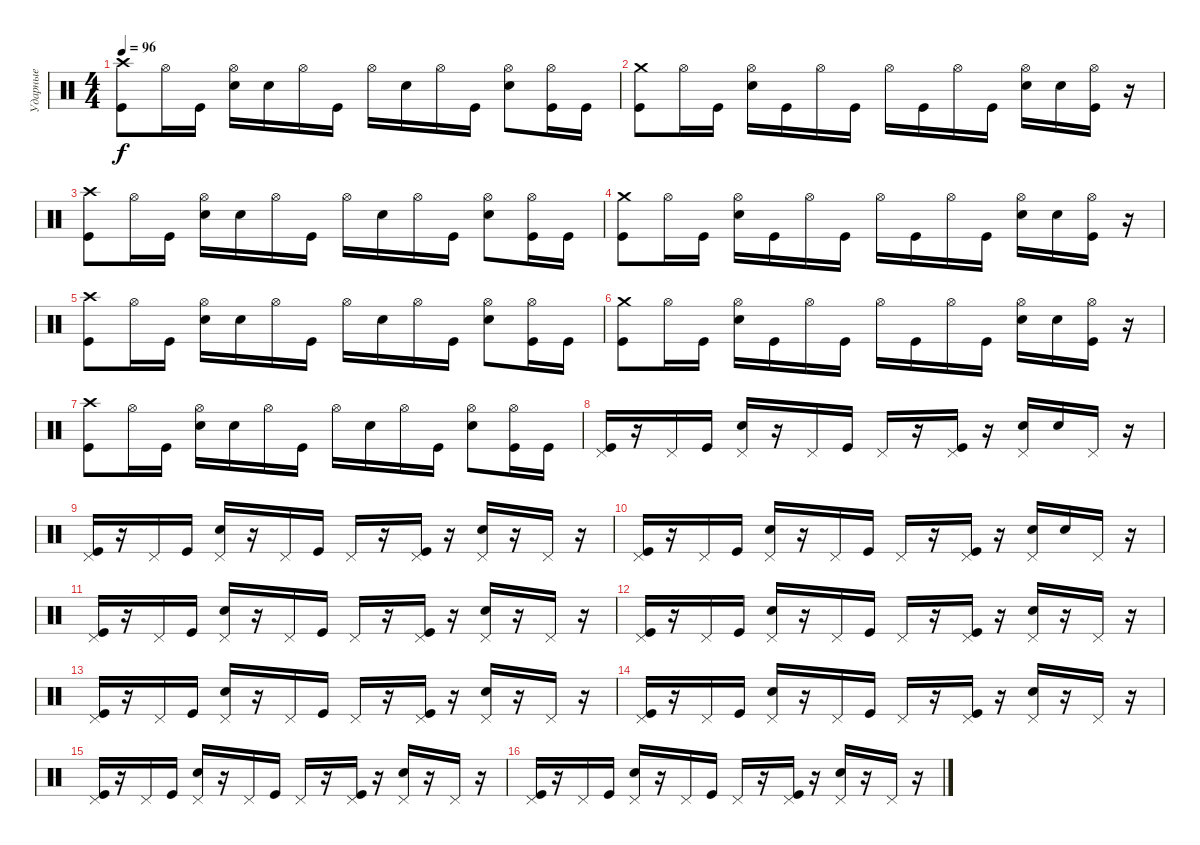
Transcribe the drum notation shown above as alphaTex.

\track ("Ударные" "Ударные") {instrument percussion}
\staff {score}
\articulation defaults
\ts (4 4)
\tempo 96
\clef neutral
\ks c
("Crash high (hit)" "Kick (hit)").8{dy f} "Hi-Hat (open)".16 "Kick (hit)".16 ("Hi-Hat (open)" "Electric Snare (hit)").16 "Electric Snare (hit)".16 "Hi-Hat (open)".16 "Kick (hit)".16 "Hi-Hat (open)".16 "Electric Snare (hit)".16 "Hi-Hat (open)".16 "Kick (hit)".16 ("Hi-Hat (open)" "Electric Snare (hit)").8 ("Hi-Hat (open)" "Kick (hit)").16 "Kick (hit)".16 |
("Crash medium (hit)" "Kick (hit)").8 "Hi-Hat (open)".16 "Kick (hit)".16 ("Hi-Hat (open)" "Electric Snare (hit)").16 "Kick (hit)".16 "Hi-Hat (open)".16 "Kick (hit)".16 "Hi-Hat (open)".16 "Kick (hit)".16 "Hi-Hat (open)".16 "Kick (hit)".16 ("Hi-Hat (open)" "Electric Snare (hit)").16 "Electric Snare (hit)".16 ("Hi-Hat (open)" "Kick (hit)").16 r.16 |
("Crash high (hit)" "Kick (hit)").8 "Hi-Hat (open)".16 "Kick (hit)".16 ("Hi-Hat (open)" "Electric Snare (hit)").16 "Electric Snare (hit)".16 "Hi-Hat (open)".16 "Kick (hit)".16 "Hi-Hat (open)".16 "Electric Snare (hit)".16 "Hi-Hat (open)".16 "Kick (hit)".16 ("Hi-Hat (open)" "Electric Snare (hit)").8 ("Hi-Hat (open)" "Kick (hit)").16 "Kick (hit)".16 |
("Crash medium (hit)" "Kick (hit)").8 "Hi-Hat (open)".16 "Kick (hit)".16 ("Hi-Hat (open)" "Electric Snare (hit)").16 "Kick (hit)".16 "Hi-Hat (open)".16 "Kick (hit)".16 "Hi-Hat (open)".16 "Kick (hit)".16 "Hi-Hat (open)".16 "Kick (hit)".16 ("Hi-Hat (open)" "Electric Snare (hit)").16 "Electric Snare (hit)".16 ("Hi-Hat (open)" "Kick (hit)").16 r.16 |
("Crash high (hit)" "Kick (hit)").8 "Hi-Hat (open)".16 "Kick (hit)".16 ("Hi-Hat (open)" "Electric Snare (hit)").16 "Electric Snare (hit)".16 "Hi-Hat (open)".16 "Kick (hit)".16 "Hi-Hat (open)".16 "Electric Snare (hit)".16 "Hi-Hat (open)".16 "Kick (hit)".16 ("Hi-Hat (open)" "Electric Snare (hit)").8 ("Hi-Hat (open)" "Kick (hit)").16 "Kick (hit)".16 |
("Crash medium (hit)" "Kick (hit)").8 "Hi-Hat (open)".16 "Kick (hit)".16 ("Hi-Hat (open)" "Electric Snare (hit)").16 "Kick (hit)".16 "Hi-Hat (open)".16 "Kick (hit)".16 "Hi-Hat (open)".16 "Kick (hit)".16 "Hi-Hat (open)".16 "Kick (hit)".16 ("Hi-Hat (open)" "Electric Snare (hit)").16 "Electric Snare (hit)".16 ("Hi-Hat (open)" "Kick (hit)").16 r.16 |
("Crash high (hit)" "Kick (hit)").8 "Hi-Hat (open)".16 "Kick (hit)".16 ("Hi-Hat (open)" "Electric Snare (hit)").16 "Electric Snare (hit)".16 "Hi-Hat (open)".16 "Kick (hit)".16 "Hi-Hat (open)".16 "Electric Snare (hit)".16 "Hi-Hat (open)".16 "Kick (hit)".16 ("Hi-Hat (open)" "Electric Snare (hit)").8 ("Hi-Hat (open)" "Kick (hit)").16 "Kick (hit)".16 |
("Pedal Hi-Hat (hit)" "Kick (hit)").16 r.16 "Pedal Hi-Hat (hit)".16 "Kick (hit)".16 ("Pedal Hi-Hat (hit)" "Electric Snare (hit)").16 r.16 "Pedal Hi-Hat (hit)".16 "Kick (hit)".16 "Pedal Hi-Hat (hit)".16 r.16 ("Pedal Hi-Hat (hit)" "Kick (hit)").16 r.16 ("Pedal Hi-Hat (hit)" "Electric Snare (hit)").16 "Electric Snare (hit)".16 "Pedal Hi-Hat (hit)".16 r.16 |
("Pedal Hi-Hat (hit)" "Kick (hit)").16 r.16 "Pedal Hi-Hat (hit)".16 "Kick (hit)".16 ("Pedal Hi-Hat (hit)" "Electric Snare (hit)").16 r.16 "Pedal Hi-Hat (hit)".16 "Kick (hit)".16 "Pedal Hi-Hat (hit)".16 r.16 ("Pedal Hi-Hat (hit)" "Kick (hit)").16 r.16 ("Pedal Hi-Hat (hit)" "Electric Snare (hit)").16 r.16 "Pedal Hi-Hat (hit)".16 r.16 |
("Pedal Hi-Hat (hit)" "Kick (hit)").16 r.16 "Pedal Hi-Hat (hit)".16 "Kick (hit)".16 ("Pedal Hi-Hat (hit)" "Electric Snare (hit)").16 r.16 "Pedal Hi-Hat (hit)".16 "Kick (hit)".16 "Pedal Hi-Hat (hit)".16 r.16 ("Pedal Hi-Hat (hit)" "Kick (hit)").16 r.16 ("Pedal Hi-Hat (hit)" "Electric Snare (hit)").16 "Electric Snare (hit)".16 "Pedal Hi-Hat (hit)".16 r.16 |
("Pedal Hi-Hat (hit)" "Kick (hit)").16 r.16 "Pedal Hi-Hat (hit)".16 "Kick (hit)".16 ("Pedal Hi-Hat (hit)" "Electric Snare (hit)").16 r.16 "Pedal Hi-Hat (hit)".16 "Kick (hit)".16 "Pedal Hi-Hat (hit)".16 r.16 ("Pedal Hi-Hat (hit)" "Kick (hit)").16 r.16 ("Pedal Hi-Hat (hit)" "Electric Snare (hit)").16 r.16 "Pedal Hi-Hat (hit)".16 r.16 |
("Pedal Hi-Hat (hit)" "Kick (hit)").16 r.16 "Pedal Hi-Hat (hit)".16 "Kick (hit)".16 ("Pedal Hi-Hat (hit)" "Electric Snare (hit)").16 r.16 "Pedal Hi-Hat (hit)".16 "Kick (hit)".16 "Pedal Hi-Hat (hit)".16 r.16 ("Pedal Hi-Hat (hit)" "Kick (hit)").16 r.16 ("Pedal Hi-Hat (hit)" "Electric Snare (hit)").16 r.16 "Pedal Hi-Hat (hit)".16 r.16 |
("Pedal Hi-Hat (hit)" "Kick (hit)").16 r.16 "Pedal Hi-Hat (hit)".16 "Kick (hit)".16 ("Pedal Hi-Hat (hit)" "Electric Snare (hit)").16 r.16 "Pedal Hi-Hat (hit)".16 "Kick (hit)".16 "Pedal Hi-Hat (hit)".16 r.16 ("Pedal Hi-Hat (hit)" "Kick (hit)").16 r.16 ("Pedal Hi-Hat (hit)" "Electric Snare (hit)").16 r.16 "Pedal Hi-Hat (hit)".16 r.16 |
("Pedal Hi-Hat (hit)" "Kick (hit)").16 r.16 "Pedal Hi-Hat (hit)".16 "Kick (hit)".16 ("Pedal Hi-Hat (hit)" "Electric Snare (hit)").16 r.16 "Pedal Hi-Hat (hit)".16 "Kick (hit)".16 "Pedal Hi-Hat (hit)".16 r.16 ("Pedal Hi-Hat (hit)" "Kick (hit)").16 r.16 ("Pedal Hi-Hat (hit)" "Electric Snare (hit)").16 r.16 "Pedal Hi-Hat (hit)".16 r.16 |
("Pedal Hi-Hat (hit)" "Kick (hit)").16 r.16 "Pedal Hi-Hat (hit)".16 "Kick (hit)".16 ("Pedal Hi-Hat (hit)" "Electric Snare (hit)").16 r.16 "Pedal Hi-Hat (hit)".16 "Kick (hit)".16 "Pedal Hi-Hat (hit)".16 r.16 ("Pedal Hi-Hat (hit)" "Kick (hit)").16 r.16 ("Pedal Hi-Hat (hit)" "Electric Snare (hit)").16 r.16 "Pedal Hi-Hat (hit)".16 r.16 |
("Pedal Hi-Hat (hit)" "Kick (hit)").16 r.16 "Pedal Hi-Hat (hit)".16 "Kick (hit)".16 ("Pedal Hi-Hat (hit)" "Electric Snare (hit)").16 r.16 "Pedal Hi-Hat (hit)".16 "Kick (hit)".16 "Pedal Hi-Hat (hit)".16 r.16 ("Pedal Hi-Hat (hit)" "Kick (hit)").16 r.16 ("Pedal Hi-Hat (hit)" "Electric Snare (hit)").16 r.16 "Pedal Hi-Hat (hit)".16 r.16
